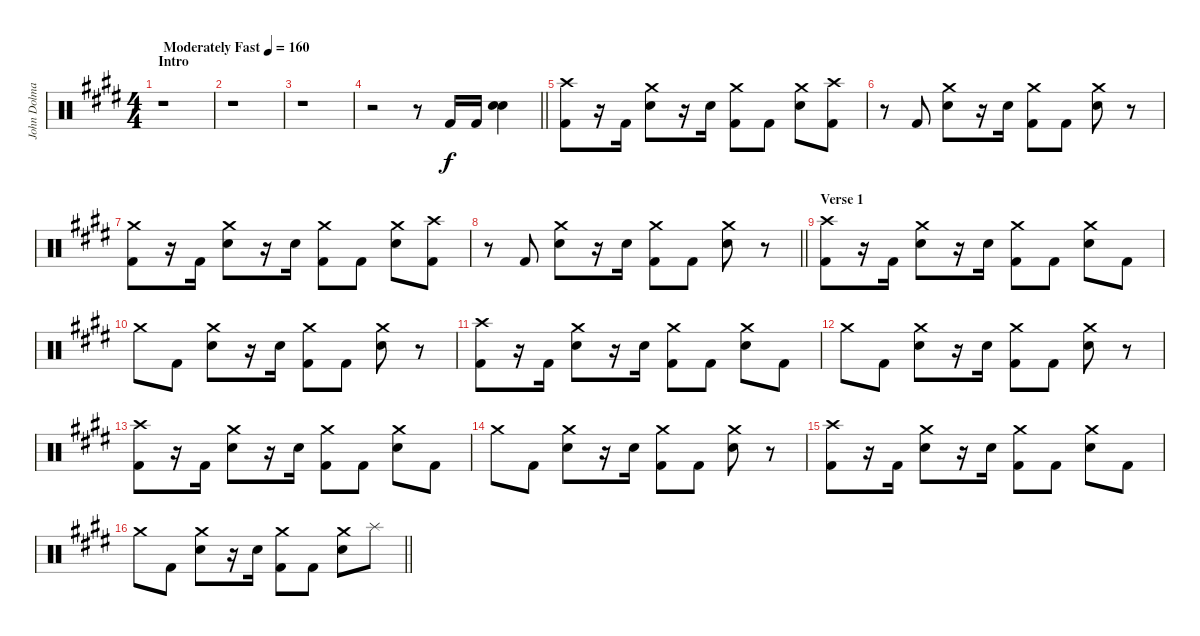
\track ("John Dolmayan [Drums]" "John Dolma") {instrument percussion}
\staff {score}
\articulation defaults
\ts (4 4)
\section ("" "Intro")
\tempo (160 "Moderately Fast")
\clef neutral
\ks c#minor
r.1{dy f} |
r.1 |
r.1 |
\barLineRight lightlight
r.2 r.8 "Kick (hit) 2".16 "Kick (hit) 2".16 ("Snare (hit) 2" "Electric Snare (hit)").4 |
("Crash high (hit)" "Kick (hit) 2").8 r.16 "Kick (hit) 2".16 ("Crash medium (hit)" "Electric Snare (hit)").8 r.16 "Electric Snare (hit)".16 ("Crash medium (hit)" "Kick (hit) 2").8 "Kick (hit) 2".8 ("Crash medium (hit)" "Electric Snare (hit)").8 ("Crash high (hit)" "Kick (hit) 2").8 |
r.8 "Kick (hit) 2".8 ("Crash medium (hit)" "Electric Snare (hit)").8 r.16 "Electric Snare (hit)".16 ("Crash medium (hit)" "Kick (hit) 2").8 "Kick (hit) 2".8 ("Crash medium (hit)" "Electric Snare (hit)").8 r.8 |
("Crash medium (hit)" "Kick (hit) 2").8 r.16 "Kick (hit) 2".16 ("Crash medium (hit)" "Electric Snare (hit)").8 r.16 "Electric Snare (hit)".16 ("Crash medium (hit)" "Kick (hit) 2").8 "Kick (hit) 2".8 ("Crash medium (hit)" "Electric Snare (hit)").8 ("Crash high (hit)" "Kick (hit) 2").8 |
\barLineRight lightlight
r.8 "Kick (hit) 2".8 ("Crash medium (hit)" "Electric Snare (hit)").8 r.16 "Electric Snare (hit)".16 ("Crash medium (hit)" "Kick (hit) 2").8 "Kick (hit) 2".8 ("Crash medium (hit)" "Electric Snare (hit)").8 r.8 |
\section ("" "Verse 1")
("Crash high (hit)" "Kick (hit) 2").8 r.16 "Kick (hit) 2".16 ("Crash medium (hit)" "Electric Snare (hit)").8 r.16 "Electric Snare (hit)".16 ("Crash medium (hit)" "Kick (hit) 2").8 "Kick (hit) 2".8 ("Crash medium (hit)" "Electric Snare (hit)").8 "Kick (hit) 2".8 |
"Crash medium (hit)".8 "Kick (hit) 2".8 ("Crash medium (hit)" "Electric Snare (hit)").8 r.16 "Electric Snare (hit)".16 ("Crash medium (hit)" "Kick (hit) 2").8 "Kick (hit) 2".8 ("Crash medium (hit)" "Electric Snare (hit)").8 r.8 |
("Crash high (hit)" "Kick (hit) 2").8 r.16 "Kick (hit) 2".16 ("Crash medium (hit)" "Electric Snare (hit)").8 r.16 "Electric Snare (hit)".16 ("Crash medium (hit)" "Kick (hit) 2").8 "Kick (hit) 2".8 ("Crash medium (hit)" "Electric Snare (hit)").8 "Kick (hit) 2".8 |
"Crash medium (hit)".8 "Kick (hit) 2".8 ("Crash medium (hit)" "Electric Snare (hit)").8 r.16 "Electric Snare (hit)".16 ("Crash medium (hit)" "Kick (hit) 2").8 "Kick (hit) 2".8 ("Crash medium (hit)" "Electric Snare (hit)").8 r.8 |
("Crash high (hit)" "Kick (hit) 2").8 r.16 "Kick (hit) 2".16 ("Crash medium (hit)" "Electric Snare (hit)").8 r.16 "Electric Snare (hit)".16 ("Crash medium (hit)" "Kick (hit) 2").8 "Kick (hit) 2".8 ("Crash medium (hit)" "Electric Snare (hit)").8 "Kick (hit) 2".8 |
"Crash medium (hit)".8 "Kick (hit) 2".8 ("Crash medium (hit)" "Electric Snare (hit)").8 r.16 "Electric Snare (hit)".16 ("Crash medium (hit)" "Kick (hit) 2").8 "Kick (hit) 2".8 ("Crash medium (hit)" "Electric Snare (hit)").8 r.8 |
("Crash high (hit)" "Kick (hit) 2").8 r.16 "Kick (hit) 2".16 ("Crash medium (hit)" "Electric Snare (hit)").8 r.16 "Electric Snare (hit)".16 ("Crash medium (hit)" "Kick (hit) 2").8 "Kick (hit) 2".8 ("Crash medium (hit)" "Electric Snare (hit)").8 "Kick (hit) 2".8 |
\barLineRight lightlight "Crash medium (hit)".8 "Kick (hit) 2".8
("Crash medium (hit)" "Electric Snare (hit)").8 r.16 "Electric Snare (hit)".16 ("Crash medium (hit)" "Kick (hit) 2").8 "Kick (hit) 2".8 ("Crash medium (hit)" "Electric Snare (hit)").8 "Splash (hit)".8
